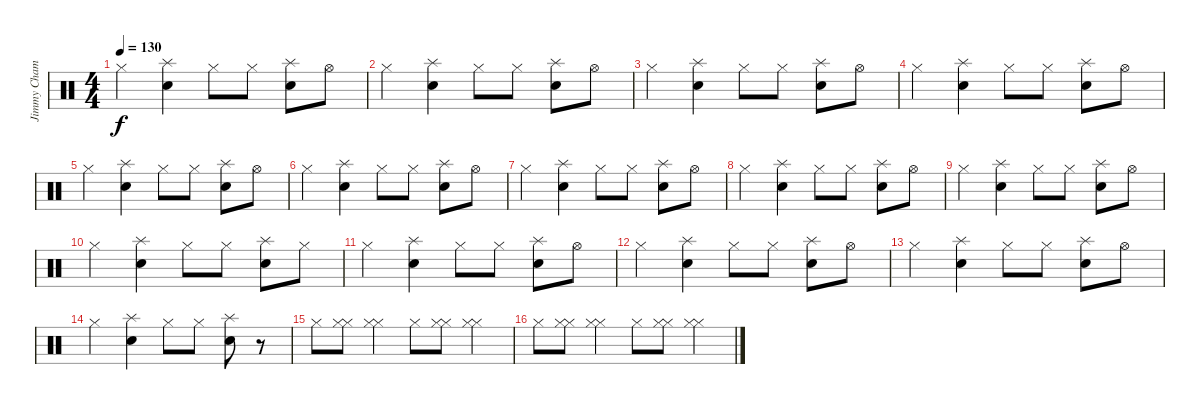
\track ("Jimmy Chamberlin (Drums)" "Jimmy Cham") {instrument percussion}
\staff {score}
\articulation defaults
\ts (4 4)
\tempo 130
\clef neutral
\ks c "Hi-Hat (closed)".4{dy f}
("Snare (hit) 2" "Splash (hit)").4 "Hi-Hat (closed)".8 "Hi-Hat (closed)".8 ("Snare (hit) 2" "Splash (hit)").8 "Hi-Hat (open)".8 |
"Hi-Hat (closed)".4 ("Snare (hit) 2" "Splash (hit)").4 "Hi-Hat (closed)".8 "Hi-Hat (closed)".8 ("Snare (hit) 2" "Splash (hit)").8 "Hi-Hat (open)".8 |
"Hi-Hat (closed)".4 ("Snare (hit) 2" "Splash (hit)").4 "Hi-Hat (closed)".8 "Hi-Hat (closed)".8 ("Snare (hit) 2" "Splash (hit)").8 "Hi-Hat (open)".8 |
"Hi-Hat (closed)".4 ("Snare (hit) 2" "Splash (hit)").4 "Hi-Hat (closed)".8 "Hi-Hat (closed)".8 ("Snare (hit) 2" "Splash (hit)").8 "Hi-Hat (open)".8 |
"Hi-Hat (closed)".4 ("Snare (hit) 2" "Splash (hit)").4 "Hi-Hat (closed)".8 "Hi-Hat (closed)".8 ("Snare (hit) 2" "Splash (hit)").8 "Hi-Hat (open)".8 |
"Hi-Hat (closed)".4 ("Snare (hit) 2" "Splash (hit)").4 "Hi-Hat (closed)".8 "Hi-Hat (closed)".8 ("Snare (hit) 2" "Splash (hit)").8 "Hi-Hat (open)".8 |
"Hi-Hat (closed)".4 ("Snare (hit) 2" "Splash (hit)").4 "Hi-Hat (closed)".8 "Hi-Hat (closed)".8 ("Snare (hit) 2" "Splash (hit)").8 "Hi-Hat (open)".8 |
"Hi-Hat (closed)".4 ("Snare (hit) 2" "Splash (hit)").4 "Hi-Hat (closed)".8 "Hi-Hat (closed)".8 ("Snare (hit) 2" "Splash (hit)").8 "Hi-Hat (open)".8 |
"Hi-Hat (closed)".4 ("Snare (hit) 2" "Splash (hit)").4 "Hi-Hat (closed)".8 "Hi-Hat (closed)".8 ("Snare (hit) 2" "Splash (hit)").8 "Hi-Hat (open)".8 |
"Hi-Hat (closed)".4 ("Snare (hit) 2" "Splash (hit)").4 "Hi-Hat (closed)".8 "Hi-Hat (closed)".8 ("Snare (hit) 2" "Splash (hit)").8 "Hi-Hat (closed)".8 |
"Hi-Hat (closed)".4 ("Snare (hit) 2" "Splash (hit)").4 "Hi-Hat (closed)".8 "Hi-Hat (closed)".8 ("Snare (hit) 2" "Splash (hit)").8 "Hi-Hat (open)".8 |
"Hi-Hat (closed)".4 ("Snare (hit) 2" "Splash (hit)").4 "Hi-Hat (closed)".8 "Hi-Hat (closed)".8 ("Snare (hit) 2" "Splash (hit)").8 "Hi-Hat (open)".8 |
"Hi-Hat (closed)".4 ("Snare (hit) 2" "Splash (hit)").4 "Hi-Hat (closed)".8 "Hi-Hat (closed)".8 ("Snare (hit) 2" "Splash (hit)").8 "Hi-Hat (open)".8 |
"Hi-Hat (closed)".4 ("Snare (hit) 2" "Splash (hit)").4 "Hi-Hat (closed)".8 "Hi-Hat (closed)".8 ("Snare (hit) 2" "Splash (hit)").8 r.8 |
"Hi-Hat (closed)".8 ("Hi-Hat (closed)" "Hi-Hat (closed)").8 ("Hi-Hat (closed)" "Hi-Hat (closed)").4 "Hi-Hat (closed)".8 ("Hi-Hat (closed)" "Hi-Hat (closed)").8 ("Hi-Hat (closed)" "Hi-Hat (closed)").4 |
"Hi-Hat (closed)".8 ("Hi-Hat (closed)" "Hi-Hat (closed)").8 ("Hi-Hat (closed)" "Hi-Hat (closed)").4 "Hi-Hat (closed)".8 ("Hi-Hat (closed)" "Hi-Hat (closed)").8 ("Hi-Hat (closed)" "Hi-Hat (closed)").4
